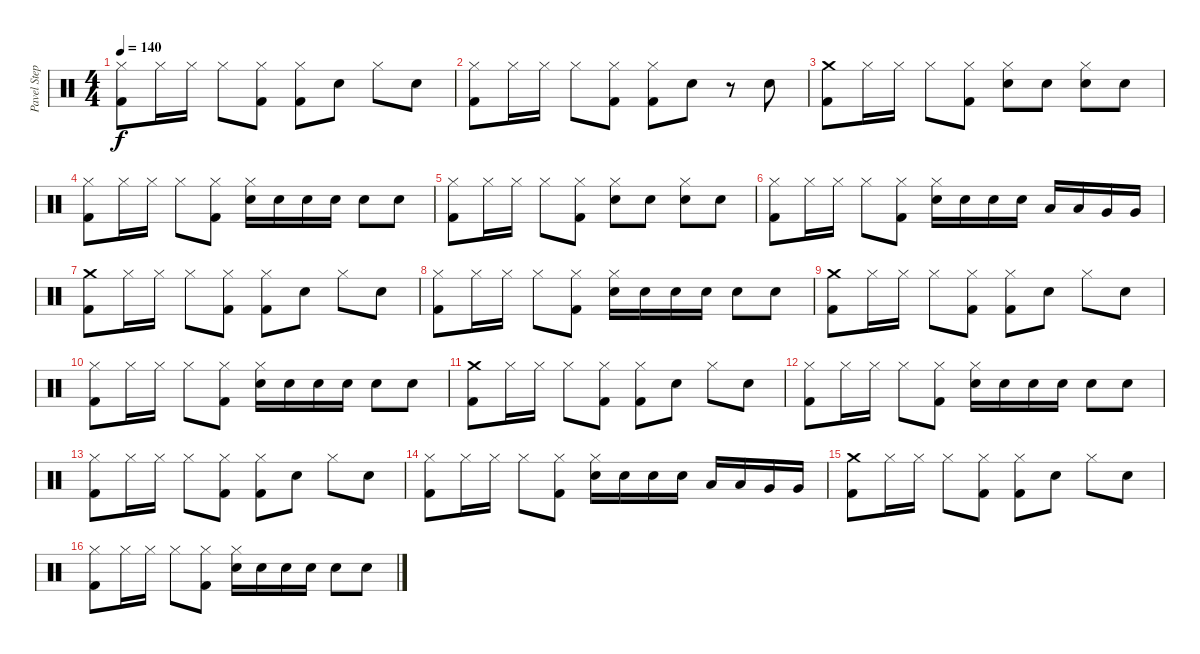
\track ("Pavel Stepan" "Pavel Step") {instrument percussion}
\staff {score}
\articulation defaults
\ts (4 4)
\tempo 140
\clef neutral
\ks c
("Hi-Hat (closed)" "Kick (hit) 2").8{dy f} "Hi-Hat (closed)".16 "Hi-Hat (closed)".16 "Hi-Hat (closed)".8 ("Hi-Hat (closed)" "Kick (hit) 2").8 ("Hi-Hat (closed)" "Kick (hit) 2").8 "Snare (hit) 2".8 "Hi-Hat (closed)".8 "Snare (hit) 2".8 |
("Hi-Hat (closed)" "Kick (hit) 2").8 "Hi-Hat (closed)".16 "Hi-Hat (closed)".16 "Hi-Hat (closed)".8 ("Hi-Hat (closed)" "Kick (hit) 2").8 ("Hi-Hat (closed)" "Kick (hit) 2").8 "Snare (hit) 2".8 r.8 "Snare (hit) 2".8 |
("Crash medium (hit)" "Kick (hit) 2").8 "Hi-Hat (closed)".16 "Hi-Hat (closed)".16 "Hi-Hat (closed)".8 ("Hi-Hat (closed)" "Kick (hit) 2").8 ("Hi-Hat (closed)" "Snare (hit) 2").8 "Snare (hit) 2".8 ("Hi-Hat (closed)" "Snare (hit) 2").8 "Snare (hit) 2".8 |
("Hi-Hat (closed)" "Kick (hit) 2").8 "Hi-Hat (closed)".16 "Hi-Hat (closed)".16 "Hi-Hat (closed)".8 ("Hi-Hat (closed)" "Kick (hit) 2").8 ("Hi-Hat (closed)" "Snare (hit) 2").16 "Snare (hit) 2".16 "Snare (hit) 2".16 "Snare (hit) 2".16 "Snare (hit) 2".8 "Snare (hit) 2".8 |
("Hi-Hat (closed)" "Kick (hit) 2").8 "Hi-Hat (closed)".16 "Hi-Hat (closed)".16 "Hi-Hat (closed)".8 ("Hi-Hat (closed)" "Kick (hit) 2").8 ("Hi-Hat (closed)" "Snare (hit) 2").8 "Snare (hit) 2".8 ("Hi-Hat (closed)" "Snare (hit) 2").8 "Snare (hit) 2".8 |
("Hi-Hat (closed)" "Kick (hit) 2").8 "Hi-Hat (closed)".16 "Hi-Hat (closed)".16 "Hi-Hat (closed)".8 ("Hi-Hat (closed)" "Kick (hit) 2").8 ("Hi-Hat (closed)" "Snare (hit) 2").16 "Snare (hit) 2".16 "Snare (hit) 2".16 "Snare (hit) 2".16 "Low Tom (hit)".16 "Low Tom (hit)".16 "Very Low Tom (hit)".16 "Very Low Tom (hit)".16 |
("Crash medium (hit)" "Kick (hit) 2").8 "Hi-Hat (closed)".16 "Hi-Hat (closed)".16 "Hi-Hat (closed)".8 ("Hi-Hat (closed)" "Kick (hit) 2").8 ("Hi-Hat (closed)" "Kick (hit) 2").8 "Snare (hit) 2".8 "Hi-Hat (closed)".8 "Snare (hit) 2".8 |
("Hi-Hat (closed)" "Kick (hit) 2").8 "Hi-Hat (closed)".16 "Hi-Hat (closed)".16 "Hi-Hat (closed)".8 ("Hi-Hat (closed)" "Kick (hit) 2").8 ("Hi-Hat (closed)" "Snare (hit) 2").16 "Snare (hit) 2".16 "Snare (hit) 2".16 "Snare (hit) 2".16 "Snare (hit) 2".8 "Snare (hit) 2".8 |
("Crash medium (hit)" "Kick (hit) 2").8 "Hi-Hat (closed)".16 "Hi-Hat (closed)".16 "Hi-Hat (closed)".8 ("Hi-Hat (closed)" "Kick (hit) 2").8 ("Hi-Hat (closed)" "Kick (hit) 2").8 "Snare (hit) 2".8 "Hi-Hat (closed)".8 "Snare (hit) 2".8 |
("Hi-Hat (closed)" "Kick (hit) 2").8 "Hi-Hat (closed)".16 "Hi-Hat (closed)".16 "Hi-Hat (closed)".8 ("Hi-Hat (closed)" "Kick (hit) 2").8 ("Hi-Hat (closed)" "Snare (hit) 2").16 "Snare (hit) 2".16 "Snare (hit) 2".16 "Snare (hit) 2".16 "Snare (hit) 2".8 "Snare (hit) 2".8 |
("Crash medium (hit)" "Kick (hit) 2").8 "Hi-Hat (closed)".16 "Hi-Hat (closed)".16 "Hi-Hat (closed)".8 ("Hi-Hat (closed)" "Kick (hit) 2").8 ("Hi-Hat (closed)" "Kick (hit) 2").8 "Snare (hit) 2".8 "Hi-Hat (closed)".8 "Snare (hit) 2".8 |
("Hi-Hat (closed)" "Kick (hit) 2").8 "Hi-Hat (closed)".16 "Hi-Hat (closed)".16 "Hi-Hat (closed)".8 ("Hi-Hat (closed)" "Kick (hit) 2").8 ("Hi-Hat (closed)" "Snare (hit) 2").16 "Snare (hit) 2".16 "Snare (hit) 2".16 "Snare (hit) 2".16 "Snare (hit) 2".8 "Snare (hit) 2".8 |
("Hi-Hat (closed)" "Kick (hit) 2").8 "Hi-Hat (closed)".16 "Hi-Hat (closed)".16 "Hi-Hat (closed)".8 ("Hi-Hat (closed)" "Kick (hit) 2").8 ("Hi-Hat (closed)" "Kick (hit) 2").8 "Snare (hit) 2".8 "Hi-Hat (closed)".8 "Snare (hit) 2".8 |
("Hi-Hat (closed)" "Kick (hit) 2").8 "Hi-Hat (closed)".16 "Hi-Hat (closed)".16 "Hi-Hat (closed)".8 ("Hi-Hat (closed)" "Kick (hit) 2").8 ("Hi-Hat (closed)" "Snare (hit) 2").16 "Snare (hit) 2".16 "Snare (hit) 2".16 "Snare (hit) 2".16 "Low Tom (hit)".16 "Low Tom (hit)".16 "Very Low Tom (hit)".16 "Very Low Tom (hit)".16 |
("Crash medium (hit)" "Kick (hit) 2").8 "Hi-Hat (closed)".16 "Hi-Hat (closed)".16 "Hi-Hat (closed)".8 ("Hi-Hat (closed)" "Kick (hit) 2").8 ("Hi-Hat (closed)" "Kick (hit) 2").8 "Snare (hit) 2".8 "Hi-Hat (closed)".8 "Snare (hit) 2".8 |
("Hi-Hat (closed)" "Kick (hit) 2").8 "Hi-Hat (closed)".16 "Hi-Hat (closed)".16 "Hi-Hat (closed)".8 ("Hi-Hat (closed)" "Kick (hit) 2").8 ("Hi-Hat (closed)" "Snare (hit) 2").16 "Snare (hit) 2".16 "Snare (hit) 2".16 "Snare (hit) 2".16 "Snare (hit) 2".8 "Snare (hit) 2".8
